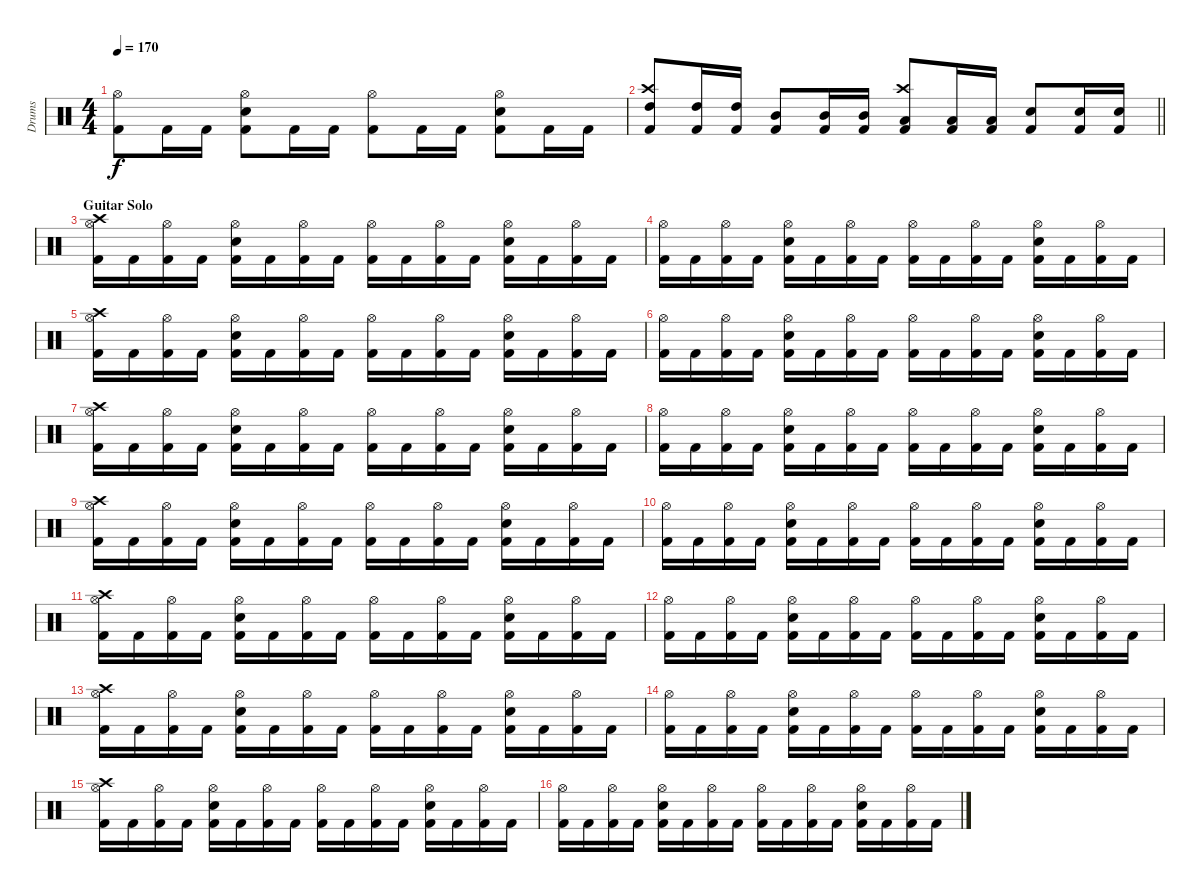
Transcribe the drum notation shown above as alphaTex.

\track ("Drums" "Drums") {instrument percussion}
\staff {score}
\articulation defaults
\ts (4 4)
\tempo 170
\clef neutral
\ks c
("Hi-Hat (open)" "Kick (hit) 2").8{dy f} "Kick (hit) 2".16 "Kick (hit) 2".16 ("Hi-Hat (open)" "Snare (hit) 2" "Kick (hit) 2").8 "Kick (hit) 2".16 "Kick (hit) 2".16 ("Hi-Hat (open)" "Kick (hit) 2").8 "Kick (hit) 2".16 "Kick (hit) 2".16 ("Hi-Hat (open)" "Snare (hit) 2" "Kick (hit) 2").8 "Kick (hit) 2".16 "Kick (hit) 2".16 |
\barLineRight lightlight
("Crash high (hit)" "High Tom (hit)" "Kick (hit) 2").8 ("High Tom (hit)" "Kick (hit) 2").16 ("High Tom (hit)" "Kick (hit) 2").16 ("Mid Tom (hit)" "Kick (hit) 2").8 ("Mid Tom (hit)" "Kick (hit) 2").16 ("Mid Tom (hit)" "Kick (hit) 2").16 ("Crash high (hit)" "Low Tom (hit)" "Kick (hit) 2").8 ("Low Tom (hit)" "Kick (hit) 2").16 ("Low Tom (hit)" "Kick (hit) 2").16 ("Snare (hit) 2" "Kick (hit) 2").8 ("Snare (hit) 2" "Kick (hit) 2").16 ("Snare (hit) 2" "Kick (hit) 2").16 |
\section ("" "Guitar Solo")
("Crash high (hit)" "Hi-Hat (open)" "Kick (hit) 2").16 "Kick (hit) 2".16 ("Hi-Hat (open)" "Kick (hit) 2").16 "Kick (hit) 2".16 ("Hi-Hat (open)" "Snare (hit) 2" "Kick (hit) 2").16 "Kick (hit) 2".16 ("Hi-Hat (open)" "Kick (hit) 2").16 "Kick (hit) 2".16 ("Hi-Hat (open)" "Kick (hit) 2").16 "Kick (hit) 2".16 ("Hi-Hat (open)" "Kick (hit) 2").16 "Kick (hit) 2".16 ("Hi-Hat (open)" "Snare (hit) 2" "Kick (hit) 2").16 "Kick (hit) 2".16 ("Hi-Hat (open)" "Kick (hit) 2").16 "Kick (hit) 2".16 |
("Hi-Hat (open)" "Kick (hit) 2").16 "Kick (hit) 2".16 ("Hi-Hat (open)" "Kick (hit) 2").16 "Kick (hit) 2".16 ("Hi-Hat (open)" "Snare (hit) 2" "Kick (hit) 2").16 "Kick (hit) 2".16 ("Hi-Hat (open)" "Kick (hit) 2").16 "Kick (hit) 2".16 ("Hi-Hat (open)" "Kick (hit) 2").16 "Kick (hit) 2".16 ("Hi-Hat (open)" "Kick (hit) 2").16 "Kick (hit) 2".16 ("Hi-Hat (open)" "Snare (hit) 2" "Kick (hit) 2").16 "Kick (hit) 2".16 ("Hi-Hat (open)" "Kick (hit) 2").16 "Kick (hit) 2".16 |
("Crash high (hit)" "Hi-Hat (open)" "Kick (hit) 2").16 "Kick (hit) 2".16 ("Hi-Hat (open)" "Kick (hit) 2").16 "Kick (hit) 2".16 ("Hi-Hat (open)" "Snare (hit) 2" "Kick (hit) 2").16 "Kick (hit) 2".16 ("Hi-Hat (open)" "Kick (hit) 2").16 "Kick (hit) 2".16 ("Hi-Hat (open)" "Kick (hit) 2").16 "Kick (hit) 2".16 ("Hi-Hat (open)" "Kick (hit) 2").16 "Kick (hit) 2".16 ("Hi-Hat (open)" "Snare (hit) 2" "Kick (hit) 2").16 "Kick (hit) 2".16 ("Hi-Hat (open)" "Kick (hit) 2").16 "Kick (hit) 2".16 |
("Hi-Hat (open)" "Kick (hit) 2").16 "Kick (hit) 2".16 ("Hi-Hat (open)" "Kick (hit) 2").16 "Kick (hit) 2".16 ("Hi-Hat (open)" "Snare (hit) 2" "Kick (hit) 2").16 "Kick (hit) 2".16 ("Hi-Hat (open)" "Kick (hit) 2").16 "Kick (hit) 2".16 ("Hi-Hat (open)" "Kick (hit) 2").16 "Kick (hit) 2".16 ("Hi-Hat (open)" "Kick (hit) 2").16 "Kick (hit) 2".16 ("Hi-Hat (open)" "Snare (hit) 2" "Kick (hit) 2").16 "Kick (hit) 2".16 ("Hi-Hat (open)" "Kick (hit) 2").16 "Kick (hit) 2".16 |
("Crash high (hit)" "Hi-Hat (open)" "Kick (hit) 2").16 "Kick (hit) 2".16 ("Hi-Hat (open)" "Kick (hit) 2").16 "Kick (hit) 2".16 ("Hi-Hat (open)" "Snare (hit) 2" "Kick (hit) 2").16 "Kick (hit) 2".16 ("Hi-Hat (open)" "Kick (hit) 2").16 "Kick (hit) 2".16 ("Hi-Hat (open)" "Kick (hit) 2").16 "Kick (hit) 2".16 ("Hi-Hat (open)" "Kick (hit) 2").16 "Kick (hit) 2".16 ("Hi-Hat (open)" "Snare (hit) 2" "Kick (hit) 2").16 "Kick (hit) 2".16 ("Hi-Hat (open)" "Kick (hit) 2").16 "Kick (hit) 2".16 |
("Hi-Hat (open)" "Kick (hit) 2").16 "Kick (hit) 2".16 ("Hi-Hat (open)" "Kick (hit) 2").16 "Kick (hit) 2".16 ("Hi-Hat (open)" "Snare (hit) 2" "Kick (hit) 2").16 "Kick (hit) 2".16 ("Hi-Hat (open)" "Kick (hit) 2").16 "Kick (hit) 2".16 ("Hi-Hat (open)" "Kick (hit) 2").16 "Kick (hit) 2".16 ("Hi-Hat (open)" "Kick (hit) 2").16 "Kick (hit) 2".16 ("Hi-Hat (open)" "Snare (hit) 2" "Kick (hit) 2").16 "Kick (hit) 2".16 ("Hi-Hat (open)" "Kick (hit) 2").16 "Kick (hit) 2".16 |
("Crash high (hit)" "Hi-Hat (open)" "Kick (hit) 2").16 "Kick (hit) 2".16 ("Hi-Hat (open)" "Kick (hit) 2").16 "Kick (hit) 2".16 ("Hi-Hat (open)" "Snare (hit) 2" "Kick (hit) 2").16 "Kick (hit) 2".16 ("Hi-Hat (open)" "Kick (hit) 2").16 "Kick (hit) 2".16 ("Hi-Hat (open)" "Kick (hit) 2").16 "Kick (hit) 2".16 ("Hi-Hat (open)" "Kick (hit) 2").16 "Kick (hit) 2".16 ("Hi-Hat (open)" "Snare (hit) 2" "Kick (hit) 2").16 "Kick (hit) 2".16 ("Hi-Hat (open)" "Kick (hit) 2").16 "Kick (hit) 2".16 |
("Hi-Hat (open)" "Kick (hit) 2").16 "Kick (hit) 2".16 ("Hi-Hat (open)" "Kick (hit) 2").16 "Kick (hit) 2".16 ("Hi-Hat (open)" "Snare (hit) 2" "Kick (hit) 2").16 "Kick (hit) 2".16 ("Hi-Hat (open)" "Kick (hit) 2").16 "Kick (hit) 2".16 ("Hi-Hat (open)" "Kick (hit) 2").16 "Kick (hit) 2".16 ("Hi-Hat (open)" "Kick (hit) 2").16 "Kick (hit) 2".16 ("Hi-Hat (open)" "Snare (hit) 2" "Kick (hit) 2").16 "Kick (hit) 2".16 ("Hi-Hat (open)" "Kick (hit) 2").16 "Kick (hit) 2".16 |
("Crash high (hit)" "Hi-Hat (open)" "Kick (hit) 2").16 "Kick (hit) 2".16 ("Hi-Hat (open)" "Kick (hit) 2").16 "Kick (hit) 2".16 ("Hi-Hat (open)" "Snare (hit) 2" "Kick (hit) 2").16 "Kick (hit) 2".16 ("Hi-Hat (open)" "Kick (hit) 2").16 "Kick (hit) 2".16 ("Hi-Hat (open)" "Kick (hit) 2").16 "Kick (hit) 2".16 ("Hi-Hat (open)" "Kick (hit) 2").16 "Kick (hit) 2".16 ("Hi-Hat (open)" "Snare (hit) 2" "Kick (hit) 2").16 "Kick (hit) 2".16 ("Hi-Hat (open)" "Kick (hit) 2").16 "Kick (hit) 2".16 |
("Hi-Hat (open)" "Kick (hit) 2").16 "Kick (hit) 2".16 ("Hi-Hat (open)" "Kick (hit) 2").16 "Kick (hit) 2".16 ("Hi-Hat (open)" "Snare (hit) 2" "Kick (hit) 2").16 "Kick (hit) 2".16 ("Hi-Hat (open)" "Kick (hit) 2").16 "Kick (hit) 2".16 ("Hi-Hat (open)" "Kick (hit) 2").16 "Kick (hit) 2".16 ("Hi-Hat (open)" "Kick (hit) 2").16 "Kick (hit) 2".16 ("Hi-Hat (open)" "Snare (hit) 2" "Kick (hit) 2").16 "Kick (hit) 2".16 ("Hi-Hat (open)" "Kick (hit) 2").16 "Kick (hit) 2".16 |
("Crash high (hit)" "Hi-Hat (open)" "Kick (hit) 2").16 "Kick (hit) 2".16 ("Hi-Hat (open)" "Kick (hit) 2").16 "Kick (hit) 2".16 ("Hi-Hat (open)" "Snare (hit) 2" "Kick (hit) 2").16 "Kick (hit) 2".16 ("Hi-Hat (open)" "Kick (hit) 2").16 "Kick (hit) 2".16 ("Hi-Hat (open)" "Kick (hit) 2").16 "Kick (hit) 2".16 ("Hi-Hat (open)" "Kick (hit) 2").16 "Kick (hit) 2".16 ("Hi-Hat (open)" "Snare (hit) 2" "Kick (hit) 2").16 "Kick (hit) 2".16 ("Hi-Hat (open)" "Kick (hit) 2").16 "Kick (hit) 2".16 |
("Hi-Hat (open)" "Kick (hit) 2").16 "Kick (hit) 2".16 ("Hi-Hat (open)" "Kick (hit) 2").16 "Kick (hit) 2".16 ("Hi-Hat (open)" "Snare (hit) 2" "Kick (hit) 2").16 "Kick (hit) 2".16 ("Hi-Hat (open)" "Kick (hit) 2").16 "Kick (hit) 2".16 ("Hi-Hat (open)" "Kick (hit) 2").16 "Kick (hit) 2".16 ("Hi-Hat (open)" "Kick (hit) 2").16 "Kick (hit) 2".16 ("Hi-Hat (open)" "Snare (hit) 2" "Kick (hit) 2").16 "Kick (hit) 2".16 ("Hi-Hat (open)" "Kick (hit) 2").16 "Kick (hit) 2".16 |
("Crash high (hit)" "Hi-Hat (open)" "Kick (hit) 2").16 "Kick (hit) 2".16 ("Hi-Hat (open)" "Kick (hit) 2").16 "Kick (hit) 2".16 ("Hi-Hat (open)" "Snare (hit) 2" "Kick (hit) 2").16 "Kick (hit) 2".16 ("Hi-Hat (open)" "Kick (hit) 2").16 "Kick (hit) 2".16 ("Hi-Hat (open)" "Kick (hit) 2").16 "Kick (hit) 2".16 ("Hi-Hat (open)" "Kick (hit) 2").16 "Kick (hit) 2".16 ("Hi-Hat (open)" "Snare (hit) 2" "Kick (hit) 2").16 "Kick (hit) 2".16 ("Hi-Hat (open)" "Kick (hit) 2").16 "Kick (hit) 2".16 |
("Hi-Hat (open)" "Kick (hit) 2").16 "Kick (hit) 2".16 ("Hi-Hat (open)" "Kick (hit) 2").16 "Kick (hit) 2".16 ("Hi-Hat (open)" "Snare (hit) 2" "Kick (hit) 2").16 "Kick (hit) 2".16 ("Hi-Hat (open)" "Kick (hit) 2").16 "Kick (hit) 2".16 ("Hi-Hat (open)" "Kick (hit) 2").16 "Kick (hit) 2".16 ("Hi-Hat (open)" "Kick (hit) 2").16 "Kick (hit) 2".16 ("Hi-Hat (open)" "Snare (hit) 2" "Kick (hit) 2").16 "Kick (hit) 2".16 ("Hi-Hat (open)" "Kick (hit) 2").16 "Kick (hit) 2".16
